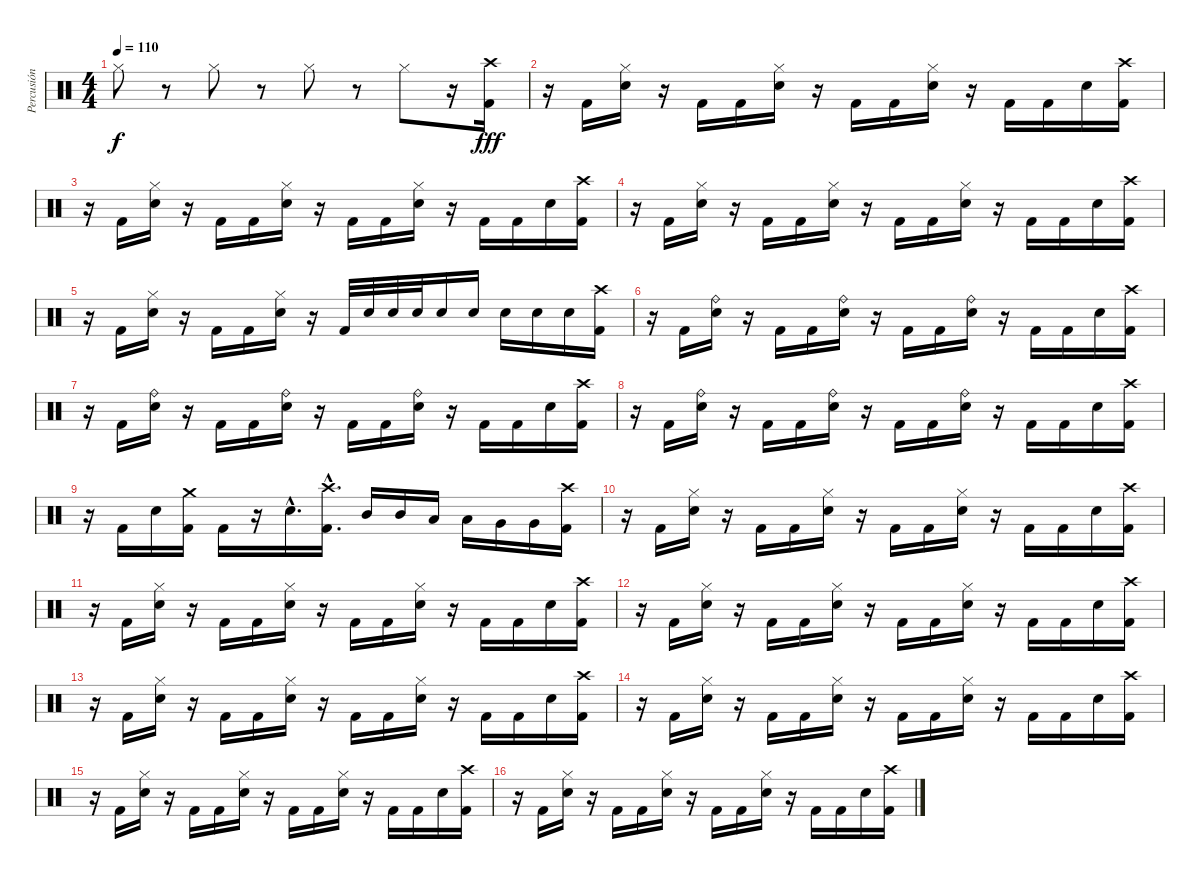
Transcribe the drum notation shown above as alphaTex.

\track ("Percusión" "Percusión") {instrument percussion}
\staff {score}
\articulation defaults
\ts (4 4)
\tempo 110
\clef neutral
\ks c "Hi-Hat (closed)".8{dy f}
r.8 "Hi-Hat (closed)".8 r.8 "Hi-Hat (closed)".8 r.8 "Hi-Hat (closed)".8 r.16 ("Kick (hit) 2" "Crash high (hit)").16{dy fff} |
r.16 "Kick (hit) 2".16 ("Electric Snare (hit)" "Hi-Hat (closed)").16 r.16 "Kick (hit) 2".16 "Kick (hit) 2".16 ("Electric Snare (hit)" "Hi-Hat (closed)").16 r.16 "Kick (hit) 2".16 "Kick (hit) 2".16 ("Electric Snare (hit)" "Hi-Hat (closed)").16 r.16 "Kick (hit) 2".16 "Kick (hit) 2".16 "Electric Snare (hit)".16 ("Kick (hit) 2" "Crash high (hit)").16 |
r.16 "Kick (hit) 2".16 ("Electric Snare (hit)" "Hi-Hat (closed)").16 r.16 "Kick (hit) 2".16 "Kick (hit) 2".16 ("Electric Snare (hit)" "Hi-Hat (closed)").16 r.16 "Kick (hit) 2".16 "Kick (hit) 2".16 ("Electric Snare (hit)" "Hi-Hat (closed)").16 r.16 "Kick (hit) 2".16 "Kick (hit) 2".16 "Electric Snare (hit)".16 ("Kick (hit) 2" "Crash high (hit)").16 |
r.16 "Kick (hit) 2".16 ("Electric Snare (hit)" "Hi-Hat (closed)").16 r.16 "Kick (hit) 2".16 "Kick (hit) 2".16 ("Electric Snare (hit)" "Hi-Hat (closed)").16 r.16 "Kick (hit) 2".16 "Kick (hit) 2".16 ("Electric Snare (hit)" "Hi-Hat (closed)").16 r.16 "Kick (hit) 2".16 "Kick (hit) 2".16 "Electric Snare (hit)".16 ("Kick (hit) 2" "Crash high (hit)").16 |
r.16 "Kick (hit) 2".16 ("Electric Snare (hit)" "Hi-Hat (closed)").16 r.16 "Kick (hit) 2".16 "Kick (hit) 2".16 ("Electric Snare (hit)" "Hi-Hat (closed)").16 r.16 "Kick (hit) 2".32 "Electric Snare (hit)".32 "Electric Snare (hit)".32 "Electric Snare (hit)".32 "Electric Snare (hit)".16 "Electric Snare (hit)".16 "Electric Snare (hit)".16 "Electric Snare (hit)".16 "Electric Snare (hit)".16 ("Kick (hit) 2" "Crash high (hit)").16 |
r.16 "Kick (hit) 2".16 ("Electric Snare (hit)" "Ride (bell)").16 r.16 "Kick (hit) 2".16 "Kick (hit) 2".16 ("Electric Snare (hit)" "Ride (bell)").16 r.16 "Kick (hit) 2".16 "Kick (hit) 2".16 ("Electric Snare (hit)" "Ride (bell)").16 r.16 "Kick (hit) 2".16 "Kick (hit) 2".16 "Electric Snare (hit)".16 ("Kick (hit) 2" "Crash high (hit)").16 |
r.16 "Kick (hit) 2".16 ("Electric Snare (hit)" "Ride (bell)").16 r.16 "Kick (hit) 2".16 "Kick (hit) 2".16 ("Electric Snare (hit)" "Ride (bell)").16 r.16 "Kick (hit) 2".16 "Kick (hit) 2".16 ("Electric Snare (hit)" "Ride (bell)").16 r.16 "Kick (hit) 2".16 "Kick (hit) 2".16 "Electric Snare (hit)".16 ("Kick (hit) 2" "Crash high (hit)").16 |
r.16 "Kick (hit) 2".16 ("Electric Snare (hit)" "Ride (bell)").16 r.16 "Kick (hit) 2".16 "Kick (hit) 2".16 ("Electric Snare (hit)" "Ride (bell)").16 r.16 "Kick (hit) 2".16 "Kick (hit) 2".16 ("Electric Snare (hit)" "Ride (bell)").16 r.16 "Kick (hit) 2".16 "Kick (hit) 2".16 "Electric Snare (hit)".16 ("Kick (hit) 2" "Crash high (hit)").16 |
r.16 "Kick (hit) 2".16 "Electric Snare (hit)".16 ("Kick (hit) 2" "Crash medium (hit)").16 "Kick (hit) 2".16 r.16 "Electric Snare (hit)"{hac}.16{d} ("Kick (hit) 2"{hac} "Crash high (hit)"{hac}).16{d} "Mid Tom (hit)".16 "Mid Tom (hit)".16 "Low Tom (hit)".16 "Low Tom (hit)".16 "Very Low Tom (hit)".16 "Very Low Tom (hit)".16 ("Kick (hit) 2" "Crash high (hit)").16 |
r.16 "Kick (hit) 2".16 ("Electric Snare (hit)" "Hi-Hat (closed)").16 r.16 "Kick (hit) 2".16 "Kick (hit) 2".16 ("Electric Snare (hit)" "Hi-Hat (closed)").16 r.16 "Kick (hit) 2".16 "Kick (hit) 2".16 ("Electric Snare (hit)" "Hi-Hat (closed)").16 r.16 "Kick (hit) 2".16 "Kick (hit) 2".16 "Electric Snare (hit)".16 ("Kick (hit) 2" "Crash high (hit)").16 |
r.16 "Kick (hit) 2".16 ("Electric Snare (hit)" "Hi-Hat (closed)").16 r.16 "Kick (hit) 2".16 "Kick (hit) 2".16 ("Electric Snare (hit)" "Hi-Hat (closed)").16 r.16 "Kick (hit) 2".16 "Kick (hit) 2".16 ("Electric Snare (hit)" "Hi-Hat (closed)").16 r.16 "Kick (hit) 2".16 "Kick (hit) 2".16 "Electric Snare (hit)".16 ("Kick (hit) 2" "Crash high (hit)").16 |
r.16 "Kick (hit) 2".16 ("Electric Snare (hit)" "Hi-Hat (closed)").16 r.16 "Kick (hit) 2".16 "Kick (hit) 2".16 ("Electric Snare (hit)" "Hi-Hat (closed)").16 r.16 "Kick (hit) 2".16 "Kick (hit) 2".16 ("Electric Snare (hit)" "Hi-Hat (closed)").16 r.16 "Kick (hit) 2".16 "Kick (hit) 2".16 "Electric Snare (hit)".16 ("Kick (hit) 2" "Crash high (hit)").16 |
r.16 "Kick (hit) 2".16 ("Electric Snare (hit)" "Hi-Hat (closed)").16 r.16 "Kick (hit) 2".16 "Kick (hit) 2".16 ("Electric Snare (hit)" "Hi-Hat (closed)").16 r.16 "Kick (hit) 2".16 "Kick (hit) 2".16 ("Electric Snare (hit)" "Hi-Hat (closed)").16 r.16 "Kick (hit) 2".16 "Kick (hit) 2".16 "Electric Snare (hit)".16 ("Kick (hit) 2" "Crash high (hit)").16 |
r.16 "Kick (hit) 2".16 ("Electric Snare (hit)" "Hi-Hat (closed)").16 r.16 "Kick (hit) 2".16 "Kick (hit) 2".16 ("Electric Snare (hit)" "Hi-Hat (closed)").16 r.16 "Kick (hit) 2".16 "Kick (hit) 2".16 ("Electric Snare (hit)" "Hi-Hat (closed)").16 r.16 "Kick (hit) 2".16 "Kick (hit) 2".16 "Electric Snare (hit)".16 ("Kick (hit) 2" "Crash high (hit)").16 |
r.16 "Kick (hit) 2".16 ("Electric Snare (hit)" "Hi-Hat (closed)").16 r.16 "Kick (hit) 2".16 "Kick (hit) 2".16 ("Electric Snare (hit)" "Hi-Hat (closed)").16 r.16 "Kick (hit) 2".16 "Kick (hit) 2".16 ("Electric Snare (hit)" "Hi-Hat (closed)").16 r.16 "Kick (hit) 2".16 "Kick (hit) 2".16 "Electric Snare (hit)".16 ("Kick (hit) 2" "Crash high (hit)").16 |
r.16 "Kick (hit) 2".16 ("Electric Snare (hit)" "Hi-Hat (closed)").16 r.16 "Kick (hit) 2".16 "Kick (hit) 2".16 ("Electric Snare (hit)" "Hi-Hat (closed)").16 r.16 "Kick (hit) 2".16 "Kick (hit) 2".16 ("Electric Snare (hit)" "Hi-Hat (closed)").16 r.16 "Kick (hit) 2".16 "Kick (hit) 2".16 "Electric Snare (hit)".16 ("Kick (hit) 2" "Crash high (hit)").16
